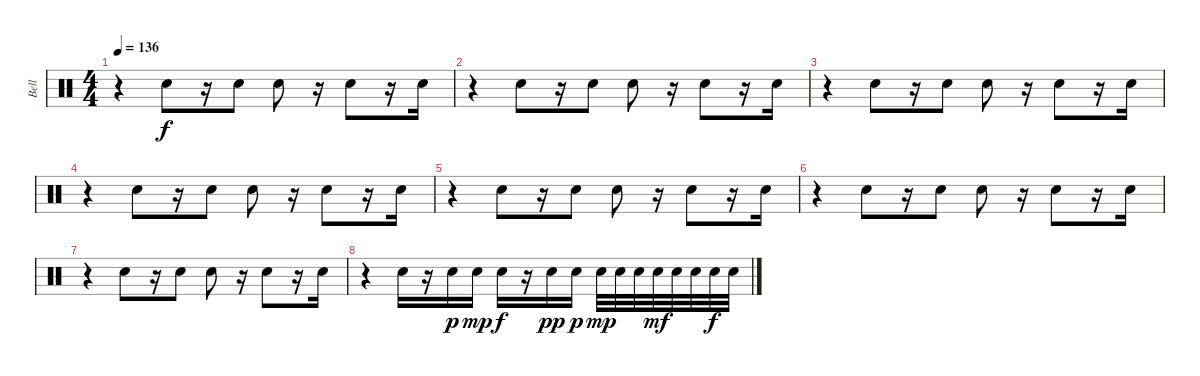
\track ("Bell" "Bell") {instrument percussion}
\staff {score}
\articulation defaults
\ts (4 4)
\tempo 136
\clef neutral
\ks c
r.4{dy f} "Metronome (bell)".8 r.16 "Metronome (bell)".8 "Metronome (bell)".8 r.16 "Metronome (bell)".8 r.16 "Metronome (bell)".16 |
r.4 "Metronome (bell)".8 r.16 "Metronome (bell)".8 "Metronome (bell)".8 r.16 "Metronome (bell)".8 r.16 "Metronome (bell)".16 |
r.4 "Metronome (bell)".8 r.16 "Metronome (bell)".8 "Metronome (bell)".8 r.16 "Metronome (bell)".8 r.16 "Metronome (bell)".16 |
r.4 "Metronome (bell)".8 r.16 "Metronome (bell)".8 "Metronome (bell)".8 r.16 "Metronome (bell)".8 r.16 "Metronome (bell)".16 |
r.4 "Metronome (bell)".8 r.16 "Metronome (bell)".8 "Metronome (bell)".8 r.16 "Metronome (bell)".8 r.16 "Metronome (bell)".16 |
r.4 "Metronome (bell)".8 r.16 "Metronome (bell)".8 "Metronome (bell)".8 r.16 "Metronome (bell)".8 r.16 "Metronome (bell)".16 |
r.4 "Metronome (bell)".8 r.16 "Metronome (bell)".8 "Metronome (bell)".8 r.16 "Metronome (bell)".8 r.16 "Metronome (bell)".16 |
r.4 "Metronome (bell)".16 r.16 "Metronome (bell)".16{dy p} "Metronome (bell)".16{dy mp} "Metronome (bell)".16{dy f} r.16 "Metronome (bell)".16{dy pp} "Metronome (bell)".16{dy p} "Metronome (bell)".32{dy mp} "Metronome (bell)".32 "Metronome (bell)".32 "Metronome (bell)".32{dy mf} "Metronome (bell)".32 "Metronome (bell)".32 "Metronome (bell)".32{dy f} "Metronome (bell)".32
